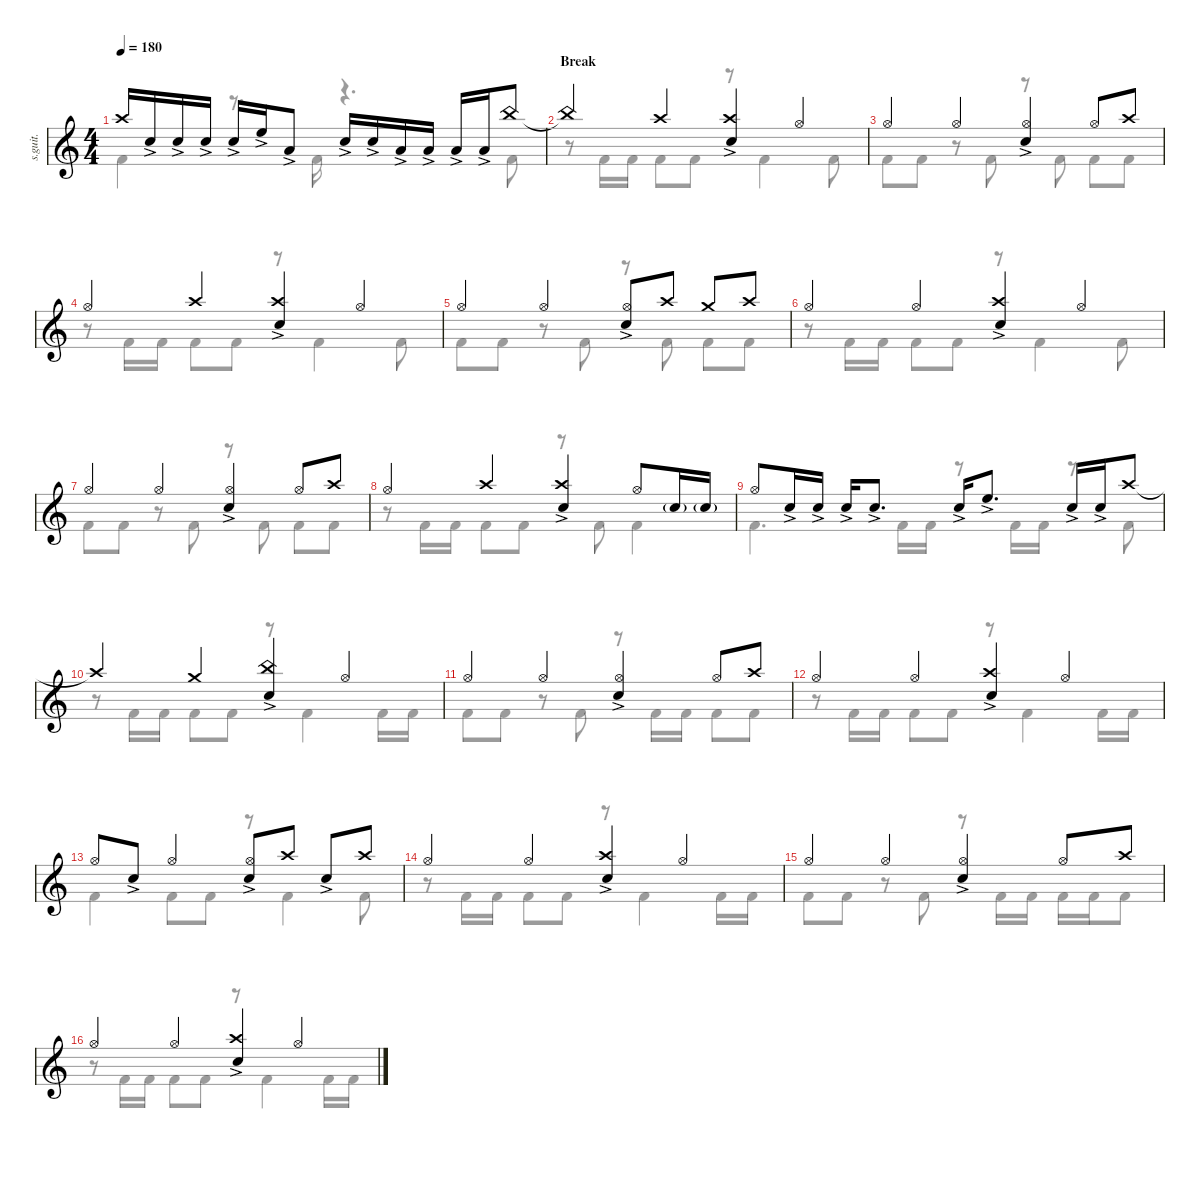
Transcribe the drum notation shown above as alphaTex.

\defaultSystemsLayout 4
\hideDynamics
\bracketExtendMode nobrackets
\track ("Percussion" "s.guit.") {instrument percussion}
\staff {score}
\articulation defaults
\voice
\ts (4 4)
\tempo 180
\clef g2
\ks c "Crash high (hit)".16{lyrics (0 "") lyrics (1 "") lyrics (2 "") lyrics (3 "") lyrics (4 "") dy f} "Snare (hit) 2"{ac}.16{lyrics (0 "") lyrics (1 "") lyrics (2 "") lyrics (3 "") lyrics (4 "")} "Snare (hit) 2"{ac}.16{lyrics (0 "") lyrics (1 "") lyrics (2 "") lyrics (3 "") lyrics (4 "")} "Snare (hit) 2"{ac}.16{lyrics (0 "") lyrics (1 "") lyrics (2 "") lyrics (3 "") lyrics (4 "")} "Snare (hit) 2"{ac}.16{lyrics (0 "") lyrics (1 "") lyrics (2 "") lyrics (3 "") lyrics (4 "")} "High Floor Tom (hit)"{ac}.16{lyrics (0 "") lyrics (1 "") lyrics (2 "") lyrics (3 "") lyrics (4 "")} "Low Tom (hit)"{ac}.8{lyrics (0 "") lyrics (1 "") lyrics (2 "") lyrics (3 "") lyrics (4 "")} "Snare (hit) 2"{ac}.16{lyrics (0 "") lyrics (1 "") lyrics (2 "") lyrics (3 "") lyrics (4 "")} "Snare (hit) 2"{ac}.16{lyrics (0 "") lyrics (1 "") lyrics (2 "") lyrics (3 "") lyrics (4 "")} "Low Tom (hit)"{ac}.16{lyrics (0 "") lyrics (1 "") lyrics (2 "") lyrics (3 "") lyrics (4 "")} "Low Tom (hit)"{ac}.16{lyrics (0 "") lyrics (1 "") lyrics (2 "") lyrics (3 "") lyrics (4 "")} "Low Tom (hit)"{ac}.16{lyrics (0 "") lyrics (1 "") lyrics (2 "") lyrics (3 "") lyrics (4 "")} "Low Tom (hit)"{ac}.16{lyrics (0 "") lyrics (1 "") lyrics (2 "") lyrics (3 "") lyrics (4 "")} "China (hit)".8{lyrics (0 "") lyrics (1 "") lyrics (2 "") lyrics (3 "") lyrics (4 "")}
|
\section ("" "Break")
"China (hit)"{t}.4{lyrics (0 "") lyrics (1 "") lyrics (2 "") lyrics (3 "") lyrics (4 "")} "Crash high (hit)".4{lyrics (0 "") lyrics (1 "") lyrics (2 "") lyrics (3 "") lyrics (4 "")} ("Crash high (hit)" "Snare (hit) 2"{ac}).4{lyrics (0 "") lyrics (1 "") lyrics (2 "") lyrics (3 "") lyrics (4 "")} "Hi-Hat (open)".4{lyrics (0 "") lyrics (1 "") lyrics (2 "") lyrics (3 "") lyrics (4 "")} |
"Hi-Hat (open)".4{lyrics (0 "") lyrics (1 "") lyrics (2 "") lyrics (3 "") lyrics (4 "")} "Hi-Hat (open)".4{lyrics (0 "") lyrics (1 "") lyrics (2 "") lyrics (3 "") lyrics (4 "")} ("Hi-Hat (open)" "Snare (hit) 2"{ac}).4{lyrics (0 "") lyrics (1 "") lyrics (2 "") lyrics (3 "") lyrics (4 "")} "Hi-Hat (open)".8{lyrics (0 "") lyrics (1 "") lyrics (2 "") lyrics (3 "") lyrics (4 "")} "Crash high (hit)".8{lyrics (0 "") lyrics (1 "") lyrics (2 "") lyrics (3 "") lyrics (4 "")} |
"Hi-Hat (open)".4{lyrics (0 "") lyrics (1 "") lyrics (2 "") lyrics (3 "") lyrics (4 "")} "Crash high (hit)".4{lyrics (0 "") lyrics (1 "") lyrics (2 "") lyrics (3 "") lyrics (4 "")} ("Crash high (hit)" "Snare (hit) 2"{ac}).4{lyrics (0 "") lyrics (1 "") lyrics (2 "") lyrics (3 "") lyrics (4 "")} "Hi-Hat (open)".4{lyrics (0 "") lyrics (1 "") lyrics (2 "") lyrics (3 "") lyrics (4 "")} |
"Hi-Hat (open)".4{lyrics (0 "") lyrics (1 "") lyrics (2 "") lyrics (3 "") lyrics (4 "")} "Hi-Hat (open)".4{lyrics (0 "") lyrics (1 "") lyrics (2 "") lyrics (3 "") lyrics (4 "")} ("Hi-Hat (open)" "Snare (hit) 2"{ac}).8{lyrics (0 "") lyrics (1 "") lyrics (2 "") lyrics (3 "") lyrics (4 "")} "Crash high (hit)".8{lyrics (0 "") lyrics (1 "") lyrics (2 "") lyrics (3 "") lyrics (4 "")} "Crash medium (hit)".8{lyrics (0 "") lyrics (1 "") lyrics (2 "") lyrics (3 "") lyrics (4 "")} "Crash high (hit)".8{lyrics (0 "") lyrics (1 "") lyrics (2 "") lyrics (3 "") lyrics (4 "")} |
"Hi-Hat (open)".4{lyrics (0 "") lyrics (1 "") lyrics (2 "") lyrics (3 "") lyrics (4 "")} "Hi-Hat (open)".4{lyrics (0 "") lyrics (1 "") lyrics (2 "") lyrics (3 "") lyrics (4 "")} ("Crash high (hit)" "Snare (hit) 2"{ac}).4{lyrics (0 "") lyrics (1 "") lyrics (2 "") lyrics (3 "") lyrics (4 "")} "Hi-Hat (open)".4{lyrics (0 "") lyrics (1 "") lyrics (2 "") lyrics (3 "") lyrics (4 "")} |
"Hi-Hat (open)".4{lyrics (0 "") lyrics (1 "") lyrics (2 "") lyrics (3 "") lyrics (4 "")} "Hi-Hat (open)".4{lyrics (0 "") lyrics (1 "") lyrics (2 "") lyrics (3 "") lyrics (4 "")} ("Hi-Hat (open)" "Snare (hit) 2"{ac}).4{lyrics (0 "") lyrics (1 "") lyrics (2 "") lyrics (3 "") lyrics (4 "")} "Hi-Hat (open)".8{lyrics (0 "") lyrics (1 "") lyrics (2 "") lyrics (3 "") lyrics (4 "")} "Crash high (hit)".8{lyrics (0 "") lyrics (1 "") lyrics (2 "") lyrics (3 "") lyrics (4 "")} |
"Hi-Hat (open)".4{lyrics (0 "") lyrics (1 "") lyrics (2 "") lyrics (3 "") lyrics (4 "")} "Crash high (hit)".4{lyrics (0 "") lyrics (1 "") lyrics (2 "") lyrics (3 "") lyrics (4 "")} ("Crash high (hit)" "Snare (hit) 2"{ac}).4{lyrics (0 "") lyrics (1 "") lyrics (2 "") lyrics (3 "") lyrics (4 "")} "Hi-Hat (open)".8{lyrics (0 "") lyrics (1 "") lyrics (2 "") lyrics (3 "") lyrics (4 "")} "Snare (hit) 2"{g}.16{lyrics (0 "") lyrics (1 "") lyrics (2 "") lyrics (3 "") lyrics (4 "")} "Snare (hit) 2"{g}.16{lyrics (0 "") lyrics (1 "") lyrics (2 "") lyrics (3 "") lyrics (4 "")} |
"Hi-Hat (open)".8{lyrics (0 "") lyrics (1 "") lyrics (2 "") lyrics (3 "") lyrics (4 "")} "Snare (hit) 2"{ac}.16{lyrics (0 "") lyrics (1 "") lyrics (2 "") lyrics (3 "") lyrics (4 "")} "Snare (hit) 2"{ac}.16{lyrics (0 "") lyrics (1 "") lyrics (2 "") lyrics (3 "") lyrics (4 "")} "Snare (hit) 2"{ac}.16{lyrics (0 "") lyrics (1 "") lyrics (2 "") lyrics (3 "") lyrics (4 "")} "Snare (hit) 2"{ac}.8{d lyrics (0 "") lyrics (1 "") lyrics (2 "") lyrics (3 "") lyrics (4 "")} "Snare (hit) 2"{ac}.16{lyrics (0 "") lyrics (1 "") lyrics (2 "") lyrics (3 "") lyrics (4 "")} "High Floor Tom (hit)"{ac}.8{d lyrics (0 "") lyrics (1 "") lyrics (2 "") lyrics (3 "") lyrics (4 "")} "Snare (hit) 2"{ac}.16{lyrics (0 "") lyrics (1 "") lyrics (2 "") lyrics (3 "") lyrics (4 "")} "Snare (hit) 2"{ac}.16{lyrics (0 "") lyrics (1 "") lyrics (2 "") lyrics (3 "") lyrics (4 "")} "Crash high (hit)".8{lyrics (0 "") lyrics (1 "") lyrics (2 "") lyrics (3 "") lyrics (4 "")} |
"Crash high (hit)"{t}.4{lyrics (0 "") lyrics (1 "") lyrics (2 "") lyrics (3 "") lyrics (4 "")} "Crash medium (hit)".4{lyrics (0 "") lyrics (1 "") lyrics (2 "") lyrics (3 "") lyrics (4 "")} ("China (hit)" "Snare (hit) 2"{ac}).4{lyrics (0 "") lyrics (1 "") lyrics (2 "") lyrics (3 "") lyrics (4 "")} "Hi-Hat (open)".4{lyrics (0 "") lyrics (1 "") lyrics (2 "") lyrics (3 "") lyrics (4 "")} |
"Hi-Hat (open)".4{lyrics (0 "") lyrics (1 "") lyrics (2 "") lyrics (3 "") lyrics (4 "")} "Hi-Hat (open)".4{lyrics (0 "") lyrics (1 "") lyrics (2 "") lyrics (3 "") lyrics (4 "")} ("Hi-Hat (open)" "Snare (hit) 2"{ac}).4{lyrics (0 "") lyrics (1 "") lyrics (2 "") lyrics (3 "") lyrics (4 "")} "Hi-Hat (open)".8{lyrics (0 "") lyrics (1 "") lyrics (2 "") lyrics (3 "") lyrics (4 "")} "Crash high (hit)".8{lyrics (0 "") lyrics (1 "") lyrics (2 "") lyrics (3 "") lyrics (4 "")} |
"Hi-Hat (open)".4{lyrics (0 "") lyrics (1 "") lyrics (2 "") lyrics (3 "") lyrics (4 "")} "Hi-Hat (open)".4{lyrics (0 "") lyrics (1 "") lyrics (2 "") lyrics (3 "") lyrics (4 "")} ("Snare (hit) 2"{ac} "Crash high (hit)").4{lyrics (0 "") lyrics (1 "") lyrics (2 "") lyrics (3 "") lyrics (4 "")} "Hi-Hat (open)".4{lyrics (0 "") lyrics (1 "") lyrics (2 "") lyrics (3 "") lyrics (4 "")} |
"Hi-Hat (open)".8{lyrics (0 "") lyrics (1 "") lyrics (2 "") lyrics (3 "") lyrics (4 "")} "Snare (hit) 2"{ac}.8{lyrics (0 "") lyrics (1 "") lyrics (2 "") lyrics (3 "") lyrics (4 "")} "Hi-Hat (open)".4{lyrics (0 "") lyrics (1 "") lyrics (2 "") lyrics (3 "") lyrics (4 "")} ("Hi-Hat (open)" "Snare (hit) 2"{ac}).8{lyrics (0 "") lyrics (1 "") lyrics (2 "") lyrics (3 "") lyrics (4 "")} "Crash high (hit)".8{lyrics (0 "") lyrics (1 "") lyrics (2 "") lyrics (3 "") lyrics (4 "")} "Snare (hit) 2"{ac}.8{lyrics (0 "") lyrics (1 "") lyrics (2 "") lyrics (3 "") lyrics (4 "")} "Crash high (hit)".8{lyrics (0 "") lyrics (1 "") lyrics (2 "") lyrics (3 "") lyrics (4 "")} |
"Hi-Hat (open)".4{lyrics (0 "") lyrics (1 "") lyrics (2 "") lyrics (3 "") lyrics (4 "")} "Hi-Hat (open)".4{lyrics (0 "") lyrics (1 "") lyrics (2 "") lyrics (3 "") lyrics (4 "")} ("Snare (hit) 2"{ac} "Crash high (hit)").4{lyrics (0 "") lyrics (1 "") lyrics (2 "") lyrics (3 "") lyrics (4 "")} "Hi-Hat (open)".4{lyrics (0 "") lyrics (1 "") lyrics (2 "") lyrics (3 "") lyrics (4 "")} |
"Hi-Hat (open)".4{lyrics (0 "") lyrics (1 "") lyrics (2 "") lyrics (3 "") lyrics (4 "")} "Hi-Hat (open)".4{lyrics (0 "") lyrics (1 "") lyrics (2 "") lyrics (3 "") lyrics (4 "")} ("Hi-Hat (open)" "Snare (hit) 2"{ac}).4{lyrics (0 "") lyrics (1 "") lyrics (2 "") lyrics (3 "") lyrics (4 "")} "Hi-Hat (open)".8{lyrics (0 "") lyrics (1 "") lyrics (2 "") lyrics (3 "") lyrics (4 "")} "Crash high (hit)".8{lyrics (0 "") lyrics (1 "") lyrics (2 "") lyrics (3 "") lyrics (4 "")} |
"Hi-Hat (open)".4{lyrics (0 "") lyrics (1 "") lyrics (2 "") lyrics (3 "") lyrics (4 "")} "Hi-Hat (open)".4{lyrics (0 "") lyrics (1 "") lyrics (2 "") lyrics (3 "") lyrics (4 "")} ("Snare (hit) 2"{ac} "Crash high (hit)").4{lyrics (0 "") lyrics (1 "") lyrics (2 "") lyrics (3 "") lyrics (4 "")} "Hi-Hat (open)".4{lyrics (0 "") lyrics (1 "") lyrics (2 "") lyrics (3 "") lyrics (4 "")}
\voice
\clef g2
\ottava regular
\simile none
\ks c "Kick (hit) 2".4{lyrics (0 "") lyrics (1 "") lyrics (2 "") lyrics (3 "") lyrics (4 "") dy f}
r.8{d} "Kick (hit) 2".16{lyrics (0 "") lyrics (1 "") lyrics (2 "") lyrics (3 "") lyrics (4 "")} r.4{d} "Kick (hit) 2".8{lyrics (0 "") lyrics (1 "") lyrics (2 "") lyrics (3 "") lyrics (4 "")} |
r.8 "Kick (hit) 2".16{lyrics (0 "") lyrics (1 "") lyrics (2 "") lyrics (3 "") lyrics (4 "")} "Kick (hit) 2".16{lyrics (0 "") lyrics (1 "") lyrics (2 "") lyrics (3 "") lyrics (4 "")} "Kick (hit) 2".8{lyrics (0 "") lyrics (1 "") lyrics (2 "") lyrics (3 "") lyrics (4 "")} "Kick (hit) 2".8{lyrics (0 "") lyrics (1 "") lyrics (2 "") lyrics (3 "") lyrics (4 "")} r.8 "Kick (hit) 2".4{lyrics (0 "") lyrics (1 "") lyrics (2 "") lyrics (3 "") lyrics (4 "")} "Kick (hit) 2".8{lyrics (0 "") lyrics (1 "") lyrics (2 "") lyrics (3 "") lyrics (4 "")} |
"Kick (hit) 2".8{lyrics (0 "") lyrics (1 "") lyrics (2 "") lyrics (3 "") lyrics (4 "")} "Kick (hit) 2".8{lyrics (0 "") lyrics (1 "") lyrics (2 "") lyrics (3 "") lyrics (4 "")} r.8 "Kick (hit) 2".8{lyrics (0 "") lyrics (1 "") lyrics (2 "") lyrics (3 "") lyrics (4 "")} r.8 "Kick (hit) 2".8{lyrics (0 "") lyrics (1 "") lyrics (2 "") lyrics (3 "") lyrics (4 "")} "Kick (hit) 2".8{lyrics (0 "") lyrics (1 "") lyrics (2 "") lyrics (3 "") lyrics (4 "")} "Kick (hit) 2".8{lyrics (0 "") lyrics (1 "") lyrics (2 "") lyrics (3 "") lyrics (4 "")} |
r.8 "Kick (hit) 2".16{lyrics (0 "") lyrics (1 "") lyrics (2 "") lyrics (3 "") lyrics (4 "")} "Kick (hit) 2".16{lyrics (0 "") lyrics (1 "") lyrics (2 "") lyrics (3 "") lyrics (4 "")} "Kick (hit) 2".8{lyrics (0 "") lyrics (1 "") lyrics (2 "") lyrics (3 "") lyrics (4 "")} "Kick (hit) 2".8{lyrics (0 "") lyrics (1 "") lyrics (2 "") lyrics (3 "") lyrics (4 "")} r.8 "Kick (hit) 2".4{lyrics (0 "") lyrics (1 "") lyrics (2 "") lyrics (3 "") lyrics (4 "")} "Kick (hit) 2".8{lyrics (0 "") lyrics (1 "") lyrics (2 "") lyrics (3 "") lyrics (4 "")} |
"Kick (hit) 2".8{lyrics (0 "") lyrics (1 "") lyrics (2 "") lyrics (3 "") lyrics (4 "")} "Kick (hit) 2".8{lyrics (0 "") lyrics (1 "") lyrics (2 "") lyrics (3 "") lyrics (4 "")} r.8 "Kick (hit) 2".8{lyrics (0 "") lyrics (1 "") lyrics (2 "") lyrics (3 "") lyrics (4 "")} r.8 "Kick (hit) 2".8{lyrics (0 "") lyrics (1 "") lyrics (2 "") lyrics (3 "") lyrics (4 "")} "Kick (hit) 2".8{lyrics (0 "") lyrics (1 "") lyrics (2 "") lyrics (3 "") lyrics (4 "")} "Kick (hit) 2".8{lyrics (0 "") lyrics (1 "") lyrics (2 "") lyrics (3 "") lyrics (4 "")} |
r.8 "Kick (hit) 2".16{lyrics (0 "") lyrics (1 "") lyrics (2 "") lyrics (3 "") lyrics (4 "")} "Kick (hit) 2".16{lyrics (0 "") lyrics (1 "") lyrics (2 "") lyrics (3 "") lyrics (4 "")} "Kick (hit) 2".8{lyrics (0 "") lyrics (1 "") lyrics (2 "") lyrics (3 "") lyrics (4 "")} "Kick (hit) 2".8{lyrics (0 "") lyrics (1 "") lyrics (2 "") lyrics (3 "") lyrics (4 "")} r.8 "Kick (hit) 2".4{lyrics (0 "") lyrics (1 "") lyrics (2 "") lyrics (3 "") lyrics (4 "")} "Kick (hit) 2".8{lyrics (0 "") lyrics (1 "") lyrics (2 "") lyrics (3 "") lyrics (4 "")} |
"Kick (hit) 2".8{lyrics (0 "") lyrics (1 "") lyrics (2 "") lyrics (3 "") lyrics (4 "")} "Kick (hit) 2".8{lyrics (0 "") lyrics (1 "") lyrics (2 "") lyrics (3 "") lyrics (4 "")} r.8 "Kick (hit) 2".8{lyrics (0 "") lyrics (1 "") lyrics (2 "") lyrics (3 "") lyrics (4 "")} r.8 "Kick (hit) 2".8{lyrics (0 "") lyrics (1 "") lyrics (2 "") lyrics (3 "") lyrics (4 "")} "Kick (hit) 2".8{lyrics (0 "") lyrics (1 "") lyrics (2 "") lyrics (3 "") lyrics (4 "")} "Kick (hit) 2".8{lyrics (0 "") lyrics (1 "") lyrics (2 "") lyrics (3 "") lyrics (4 "")} |
r.8 "Kick (hit) 2".16{lyrics (0 "") lyrics (1 "") lyrics (2 "") lyrics (3 "") lyrics (4 "")} "Kick (hit) 2".16{lyrics (0 "") lyrics (1 "") lyrics (2 "") lyrics (3 "") lyrics (4 "")} "Kick (hit) 2".8{lyrics (0 "") lyrics (1 "") lyrics (2 "") lyrics (3 "") lyrics (4 "")} "Kick (hit) 2".8{lyrics (0 "") lyrics (1 "") lyrics (2 "") lyrics (3 "") lyrics (4 "")} r.8 "Kick (hit) 2".8{lyrics (0 "") lyrics (1 "") lyrics (2 "") lyrics (3 "") lyrics (4 "")} "Kick (hit) 2".4{lyrics (0 "") lyrics (1 "") lyrics (2 "") lyrics (3 "") lyrics (4 "")} |
"Kick (hit) 2".4{d lyrics (0 "") lyrics (1 "") lyrics (2 "") lyrics (3 "") lyrics (4 "")} "Kick (hit) 2".16{lyrics (0 "") lyrics (1 "") lyrics (2 "") lyrics (3 "") lyrics (4 "")} "Kick (hit) 2".16{lyrics (0 "") lyrics (1 "") lyrics (2 "") lyrics (3 "") lyrics (4 "")} r.8 "Kick (hit) 2".16{lyrics (0 "") lyrics (1 "") lyrics (2 "") lyrics (3 "") lyrics (4 "")} "Kick (hit) 2".16{lyrics (0 "") lyrics (1 "") lyrics (2 "") lyrics (3 "") lyrics (4 "")} r.8 "Kick (hit) 2".8{lyrics (0 "") lyrics (1 "") lyrics (2 "") lyrics (3 "") lyrics (4 "")} |
r.8 "Kick (hit) 2".16{lyrics (0 "") lyrics (1 "") lyrics (2 "") lyrics (3 "") lyrics (4 "")} "Kick (hit) 2".16{lyrics (0 "") lyrics (1 "") lyrics (2 "") lyrics (3 "") lyrics (4 "")} "Kick (hit) 2".8{lyrics (0 "") lyrics (1 "") lyrics (2 "") lyrics (3 "") lyrics (4 "")} "Kick (hit) 2".8{lyrics (0 "") lyrics (1 "") lyrics (2 "") lyrics (3 "") lyrics (4 "")} r.8 "Kick (hit) 2".4{lyrics (0 "") lyrics (1 "") lyrics (2 "") lyrics (3 "") lyrics (4 "")} "Kick (hit) 2".16{lyrics (0 "") lyrics (1 "") lyrics (2 "") lyrics (3 "") lyrics (4 "")} "Kick (hit) 2".16{lyrics (0 "") lyrics (1 "") lyrics (2 "") lyrics (3 "") lyrics (4 "")} |
"Kick (hit) 2".8{lyrics (0 "") lyrics (1 "") lyrics (2 "") lyrics (3 "") lyrics (4 "")} "Kick (hit) 2".8{lyrics (0 "") lyrics (1 "") lyrics (2 "") lyrics (3 "") lyrics (4 "")} r.8 "Kick (hit) 2".8{lyrics (0 "") lyrics (1 "") lyrics (2 "") lyrics (3 "") lyrics (4 "")} r.8 "Kick (hit) 2".16{lyrics (0 "") lyrics (1 "") lyrics (2 "") lyrics (3 "") lyrics (4 "")} "Kick (hit) 2".16{lyrics (0 "") lyrics (1 "") lyrics (2 "") lyrics (3 "") lyrics (4 "")} "Kick (hit) 2".8{lyrics (0 "") lyrics (1 "") lyrics (2 "") lyrics (3 "") lyrics (4 "")} "Kick (hit) 2".8{lyrics (0 "") lyrics (1 "") lyrics (2 "") lyrics (3 "") lyrics (4 "")} |
r.8 "Kick (hit) 2".16{lyrics (0 "") lyrics (1 "") lyrics (2 "") lyrics (3 "") lyrics (4 "")} "Kick (hit) 2".16{lyrics (0 "") lyrics (1 "") lyrics (2 "") lyrics (3 "") lyrics (4 "")} "Kick (hit) 2".8{lyrics (0 "") lyrics (1 "") lyrics (2 "") lyrics (3 "") lyrics (4 "")} "Kick (hit) 2".8{lyrics (0 "") lyrics (1 "") lyrics (2 "") lyrics (3 "") lyrics (4 "")} r.8 "Kick (hit) 2".4{lyrics (0 "") lyrics (1 "") lyrics (2 "") lyrics (3 "") lyrics (4 "")} "Kick (hit) 2".16{lyrics (0 "") lyrics (1 "") lyrics (2 "") lyrics (3 "") lyrics (4 "")} "Kick (hit) 2".16{lyrics (0 "") lyrics (1 "") lyrics (2 "") lyrics (3 "") lyrics (4 "")} |
"Kick (hit) 2".4{lyrics (0 "") lyrics (1 "") lyrics (2 "") lyrics (3 "") lyrics (4 "")} "Kick (hit) 2".8{lyrics (0 "") lyrics (1 "") lyrics (2 "") lyrics (3 "") lyrics (4 "")} "Kick (hit) 2".8{lyrics (0 "") lyrics (1 "") lyrics (2 "") lyrics (3 "") lyrics (4 "")} r.8 "Kick (hit) 2".4{lyrics (0 "") lyrics (1 "") lyrics (2 "") lyrics (3 "") lyrics (4 "")} "Kick (hit) 2".8{lyrics (0 "") lyrics (1 "") lyrics (2 "") lyrics (3 "") lyrics (4 "")} |
r.8 "Kick (hit) 2".16{lyrics (0 "") lyrics (1 "") lyrics (2 "") lyrics (3 "") lyrics (4 "")} "Kick (hit) 2".16{lyrics (0 "") lyrics (1 "") lyrics (2 "") lyrics (3 "") lyrics (4 "")} "Kick (hit) 2".8{lyrics (0 "") lyrics (1 "") lyrics (2 "") lyrics (3 "") lyrics (4 "")} "Kick (hit) 2".8{lyrics (0 "") lyrics (1 "") lyrics (2 "") lyrics (3 "") lyrics (4 "")} r.8 "Kick (hit) 2".4{lyrics (0 "") lyrics (1 "") lyrics (2 "") lyrics (3 "") lyrics (4 "")} "Kick (hit) 2".16{lyrics (0 "") lyrics (1 "") lyrics (2 "") lyrics (3 "") lyrics (4 "")} "Kick (hit) 2".16{lyrics (0 "") lyrics (1 "") lyrics (2 "") lyrics (3 "") lyrics (4 "")} |
"Kick (hit) 2".8{lyrics (0 "") lyrics (1 "") lyrics (2 "") lyrics (3 "") lyrics (4 "")} "Kick (hit) 2".8{lyrics (0 "") lyrics (1 "") lyrics (2 "") lyrics (3 "") lyrics (4 "")} r.8 "Kick (hit) 2".8{lyrics (0 "") lyrics (1 "") lyrics (2 "") lyrics (3 "") lyrics (4 "")} r.8 "Kick (hit) 2".16{lyrics (0 "") lyrics (1 "") lyrics (2 "") lyrics (3 "") lyrics (4 "")} "Kick (hit) 2".16{lyrics (0 "") lyrics (1 "") lyrics (2 "") lyrics (3 "") lyrics (4 "")} "Kick (hit) 2".16{lyrics (0 "") lyrics (1 "") lyrics (2 "") lyrics (3 "") lyrics (4 "")} "Kick (hit) 2".16{lyrics (0 "") lyrics (1 "") lyrics (2 "") lyrics (3 "") lyrics (4 "")} "Kick (hit) 2".8{lyrics (0 "") lyrics (1 "") lyrics (2 "") lyrics (3 "") lyrics (4 "")} |
r.8 "Kick (hit) 2".16{lyrics (0 "") lyrics (1 "") lyrics (2 "") lyrics (3 "") lyrics (4 "")} "Kick (hit) 2".16{lyrics (0 "") lyrics (1 "") lyrics (2 "") lyrics (3 "") lyrics (4 "")} "Kick (hit) 2".8{lyrics (0 "") lyrics (1 "") lyrics (2 "") lyrics (3 "") lyrics (4 "")} "Kick (hit) 2".8{lyrics (0 "") lyrics (1 "") lyrics (2 "") lyrics (3 "") lyrics (4 "")} r.8 "Kick (hit) 2".4{lyrics (0 "") lyrics (1 "") lyrics (2 "") lyrics (3 "") lyrics (4 "")} "Kick (hit) 2".16{lyrics (0 "") lyrics (1 "") lyrics (2 "") lyrics (3 "") lyrics (4 "")} "Kick (hit) 2".16{lyrics (0 "") lyrics (1 "") lyrics (2 "") lyrics (3 "") lyrics (4 "")}
